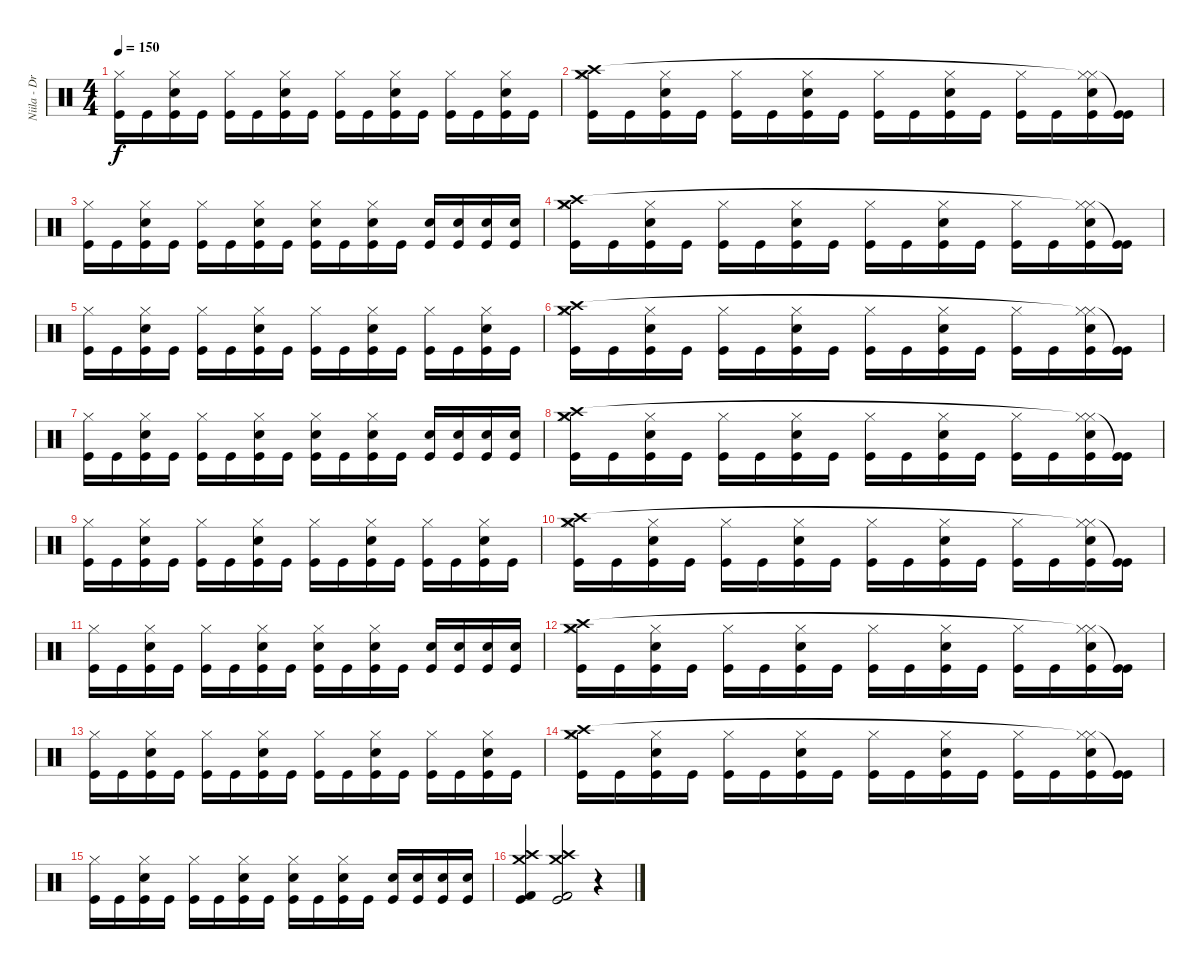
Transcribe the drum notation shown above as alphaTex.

\track ("Niila - Drums" "Niila - Dr") {instrument percussion}
\staff {score}
\articulation defaults
\ts (4 4)
\tempo 150
\clef neutral
\ks c
("Hi-Hat (closed)" "Kick (hit)").16{dy f} "Kick (hit)".16 ("Hi-Hat (closed)" "Snare (hit) 2" "Kick (hit)").16 "Kick (hit)".16 ("Hi-Hat (closed)" "Kick (hit)").16 "Kick (hit)".16 ("Hi-Hat (closed)" "Snare (hit) 2" "Kick (hit)").16 "Kick (hit)".16 ("Hi-Hat (closed)" "Kick (hit)").16 "Kick (hit)".16 ("Hi-Hat (closed)" "Snare (hit) 2" "Kick (hit)").16 "Kick (hit)".16 ("Hi-Hat (closed)" "Kick (hit)").16 "Kick (hit)".16 ("Hi-Hat (closed)" "Snare (hit) 2" "Kick (hit)").16 "Kick (hit)".16 |
("Crash medium (hit)" "Hi-Hat (closed)" "Kick (hit)" "Crash high (hit)").16 "Kick (hit)".16 ("Hi-Hat (closed)" "Snare (hit) 2" "Kick (hit)").16 "Kick (hit)".16 ("Hi-Hat (closed)" "Kick (hit)").16 "Kick (hit)".16 ("Hi-Hat (closed)" "Snare (hit) 2" "Kick (hit)").16 "Kick (hit)".16 ("Hi-Hat (closed)" "Kick (hit)").16 "Kick (hit)".16 ("Hi-Hat (closed)" "Snare (hit) 2" "Kick (hit)").16 "Kick (hit)".16 ("Hi-Hat (closed)" "Kick (hit)").16 "Kick (hit)".16 ("Hi-Hat (closed)" "Snare (hit) 2" "Kick (hit)" "Hi-Hat (closed)"{t}).16 ("Kick (hit)"{t} "Kick (hit)").16 |
("Hi-Hat (closed)" "Kick (hit)").16 "Kick (hit)".16 ("Hi-Hat (closed)" "Snare (hit) 2" "Kick (hit)").16 "Kick (hit)".16 ("Hi-Hat (closed)" "Kick (hit)").16 "Kick (hit)".16 ("Hi-Hat (closed)" "Snare (hit) 2" "Kick (hit)").16 "Kick (hit)".16 ("Hi-Hat (closed)" "Snare (hit) 2" "Kick (hit)").16 "Kick (hit)".16 ("Hi-Hat (closed)" "Snare (hit) 2" "Kick (hit)").16 "Kick (hit)".16 ("Snare (hit) 2" "Kick (hit)").16 ("Snare (hit) 2" "Kick (hit)").16 ("Snare (hit) 2" "Kick (hit)").16 ("Snare (hit) 2" "Kick (hit)").16 |
("Crash medium (hit)" "Hi-Hat (closed)" "Kick (hit)" "Crash high (hit)").16 "Kick (hit)".16 ("Hi-Hat (closed)" "Snare (hit) 2" "Kick (hit)").16 "Kick (hit)".16 ("Hi-Hat (closed)" "Kick (hit)").16 "Kick (hit)".16 ("Hi-Hat (closed)" "Snare (hit) 2" "Kick (hit)").16 "Kick (hit)".16 ("Hi-Hat (closed)" "Kick (hit)").16 "Kick (hit)".16 ("Hi-Hat (closed)" "Snare (hit) 2" "Kick (hit)").16 "Kick (hit)".16 ("Hi-Hat (closed)" "Kick (hit)").16 "Kick (hit)".16 ("Hi-Hat (closed)" "Snare (hit) 2" "Kick (hit)" "Hi-Hat (closed)"{t}).16 ("Kick (hit)"{t} "Kick (hit)").16 |
("Hi-Hat (closed)" "Kick (hit)").16 "Kick (hit)".16 ("Hi-Hat (closed)" "Snare (hit) 2" "Kick (hit)").16 "Kick (hit)".16 ("Hi-Hat (closed)" "Kick (hit)").16 "Kick (hit)".16 ("Hi-Hat (closed)" "Snare (hit) 2" "Kick (hit)").16 "Kick (hit)".16 ("Hi-Hat (closed)" "Kick (hit)").16 "Kick (hit)".16 ("Hi-Hat (closed)" "Snare (hit) 2" "Kick (hit)").16 "Kick (hit)".16 ("Hi-Hat (closed)" "Kick (hit)").16 "Kick (hit)".16 ("Hi-Hat (closed)" "Snare (hit) 2" "Kick (hit)").16 "Kick (hit)".16 |
("Crash medium (hit)" "Hi-Hat (closed)" "Kick (hit)" "Crash high (hit)").16 "Kick (hit)".16 ("Hi-Hat (closed)" "Snare (hit) 2" "Kick (hit)").16 "Kick (hit)".16 ("Hi-Hat (closed)" "Kick (hit)").16 "Kick (hit)".16 ("Hi-Hat (closed)" "Snare (hit) 2" "Kick (hit)").16 "Kick (hit)".16 ("Hi-Hat (closed)" "Kick (hit)").16 "Kick (hit)".16 ("Hi-Hat (closed)" "Snare (hit) 2" "Kick (hit)").16 "Kick (hit)".16 ("Hi-Hat (closed)" "Kick (hit)").16 "Kick (hit)".16 ("Hi-Hat (closed)" "Snare (hit) 2" "Kick (hit)" "Hi-Hat (closed)"{t}).16 ("Kick (hit)"{t} "Kick (hit)").16 |
("Hi-Hat (closed)" "Kick (hit)").16 "Kick (hit)".16 ("Hi-Hat (closed)" "Snare (hit) 2" "Kick (hit)").16 "Kick (hit)".16 ("Hi-Hat (closed)" "Kick (hit)").16 "Kick (hit)".16 ("Hi-Hat (closed)" "Snare (hit) 2" "Kick (hit)").16 "Kick (hit)".16 ("Hi-Hat (closed)" "Snare (hit) 2" "Kick (hit)").16 "Kick (hit)".16 ("Hi-Hat (closed)" "Snare (hit) 2" "Kick (hit)").16 "Kick (hit)".16 ("Snare (hit) 2" "Kick (hit)").16 ("Snare (hit) 2" "Kick (hit)").16 ("Snare (hit) 2" "Kick (hit)").16 ("Snare (hit) 2" "Kick (hit)").16 |
("Crash medium (hit)" "Hi-Hat (closed)" "Kick (hit)" "Crash high (hit)").16 "Kick (hit)".16 ("Hi-Hat (closed)" "Snare (hit) 2" "Kick (hit)").16 "Kick (hit)".16 ("Hi-Hat (closed)" "Kick (hit)").16 "Kick (hit)".16 ("Hi-Hat (closed)" "Snare (hit) 2" "Kick (hit)").16 "Kick (hit)".16 ("Hi-Hat (closed)" "Kick (hit)").16 "Kick (hit)".16 ("Hi-Hat (closed)" "Snare (hit) 2" "Kick (hit)").16 "Kick (hit)".16 ("Hi-Hat (closed)" "Kick (hit)").16 "Kick (hit)".16 ("Hi-Hat (closed)" "Snare (hit) 2" "Kick (hit)" "Hi-Hat (closed)"{t}).16 ("Kick (hit)"{t} "Kick (hit)").16 |
("Hi-Hat (closed)" "Kick (hit)").16 "Kick (hit)".16 ("Hi-Hat (closed)" "Snare (hit) 2" "Kick (hit)").16 "Kick (hit)".16 ("Hi-Hat (closed)" "Kick (hit)").16 "Kick (hit)".16 ("Hi-Hat (closed)" "Snare (hit) 2" "Kick (hit)").16 "Kick (hit)".16 ("Hi-Hat (closed)" "Kick (hit)").16 "Kick (hit)".16 ("Hi-Hat (closed)" "Snare (hit) 2" "Kick (hit)").16 "Kick (hit)".16 ("Hi-Hat (closed)" "Kick (hit)").16 "Kick (hit)".16 ("Hi-Hat (closed)" "Snare (hit) 2" "Kick (hit)").16 "Kick (hit)".16 |
("Crash medium (hit)" "Hi-Hat (closed)" "Kick (hit)" "Crash high (hit)").16 "Kick (hit)".16 ("Hi-Hat (closed)" "Snare (hit) 2" "Kick (hit)").16 "Kick (hit)".16 ("Hi-Hat (closed)" "Kick (hit)").16 "Kick (hit)".16 ("Hi-Hat (closed)" "Snare (hit) 2" "Kick (hit)").16 "Kick (hit)".16 ("Hi-Hat (closed)" "Kick (hit)").16 "Kick (hit)".16 ("Hi-Hat (closed)" "Snare (hit) 2" "Kick (hit)").16 "Kick (hit)".16 ("Hi-Hat (closed)" "Kick (hit)").16 "Kick (hit)".16 ("Hi-Hat (closed)" "Snare (hit) 2" "Kick (hit)" "Hi-Hat (closed)"{t}).16 ("Kick (hit)"{t} "Kick (hit)").16 |
("Hi-Hat (closed)" "Kick (hit)").16 "Kick (hit)".16 ("Hi-Hat (closed)" "Snare (hit) 2" "Kick (hit)").16 "Kick (hit)".16 ("Hi-Hat (closed)" "Kick (hit)").16 "Kick (hit)".16 ("Hi-Hat (closed)" "Snare (hit) 2" "Kick (hit)").16 "Kick (hit)".16 ("Hi-Hat (closed)" "Snare (hit) 2" "Kick (hit)").16 "Kick (hit)".16 ("Hi-Hat (closed)" "Snare (hit) 2" "Kick (hit)").16 "Kick (hit)".16 ("Snare (hit) 2" "Kick (hit)").16 ("Snare (hit) 2" "Kick (hit)").16 ("Snare (hit) 2" "Kick (hit)").16 ("Snare (hit) 2" "Kick (hit)").16 |
("Crash medium (hit)" "Hi-Hat (closed)" "Kick (hit)" "Crash high (hit)").16 "Kick (hit)".16 ("Hi-Hat (closed)" "Snare (hit) 2" "Kick (hit)").16 "Kick (hit)".16 ("Hi-Hat (closed)" "Kick (hit)").16 "Kick (hit)".16 ("Hi-Hat (closed)" "Snare (hit) 2" "Kick (hit)").16 "Kick (hit)".16 ("Hi-Hat (closed)" "Kick (hit)").16 "Kick (hit)".16 ("Hi-Hat (closed)" "Snare (hit) 2" "Kick (hit)").16 "Kick (hit)".16 ("Hi-Hat (closed)" "Kick (hit)").16 "Kick (hit)".16 ("Hi-Hat (closed)" "Snare (hit) 2" "Kick (hit)" "Hi-Hat (closed)"{t}).16 ("Kick (hit)"{t} "Kick (hit)").16 |
("Hi-Hat (closed)" "Kick (hit)").16 "Kick (hit)".16 ("Hi-Hat (closed)" "Snare (hit) 2" "Kick (hit)").16 "Kick (hit)".16 ("Hi-Hat (closed)" "Kick (hit)").16 "Kick (hit)".16 ("Hi-Hat (closed)" "Snare (hit) 2" "Kick (hit)").16 "Kick (hit)".16 ("Hi-Hat (closed)" "Kick (hit)").16 "Kick (hit)".16 ("Hi-Hat (closed)" "Snare (hit) 2" "Kick (hit)").16 "Kick (hit)".16 ("Hi-Hat (closed)" "Kick (hit)").16 "Kick (hit)".16 ("Hi-Hat (closed)" "Snare (hit) 2" "Kick (hit)").16 "Kick (hit)".16 |
("Crash medium (hit)" "Hi-Hat (closed)" "Kick (hit)" "Crash high (hit)").16 "Kick (hit)".16 ("Hi-Hat (closed)" "Snare (hit) 2" "Kick (hit)").16 "Kick (hit)".16 ("Hi-Hat (closed)" "Kick (hit)").16 "Kick (hit)".16 ("Hi-Hat (closed)" "Snare (hit) 2" "Kick (hit)").16 "Kick (hit)".16 ("Hi-Hat (closed)" "Kick (hit)").16 "Kick (hit)".16 ("Hi-Hat (closed)" "Snare (hit) 2" "Kick (hit)").16 "Kick (hit)".16 ("Hi-Hat (closed)" "Kick (hit)").16 "Kick (hit)".16 ("Hi-Hat (closed)" "Snare (hit) 2" "Kick (hit)" "Hi-Hat (closed)"{t}).16 ("Kick (hit)"{t} "Kick (hit)").16 |
("Hi-Hat (closed)" "Kick (hit)").16 "Kick (hit)".16 ("Hi-Hat (closed)" "Snare (hit) 2" "Kick (hit)").16 "Kick (hit)".16 ("Hi-Hat (closed)" "Kick (hit)").16 "Kick (hit)".16 ("Hi-Hat (closed)" "Snare (hit) 2" "Kick (hit)").16 "Kick (hit)".16 ("Hi-Hat (closed)" "Snare (hit) 2" "Kick (hit)").16 "Kick (hit)".16 ("Hi-Hat (closed)" "Snare (hit) 2" "Kick (hit)").16 "Kick (hit)".16 ("Snare (hit) 2" "Kick (hit)").16 ("Snare (hit) 2" "Kick (hit)").16 ("Snare (hit) 2" "Kick (hit)").16 ("Snare (hit) 2" "Kick (hit)").16 |
("Kick (hit) 2" "Kick (hit)" "Crash high (hit)" "Crash medium (hit)").4 ("Kick (hit) 2" "Kick (hit)" "Crash high (hit)" "Crash medium (hit)").2 r.4
